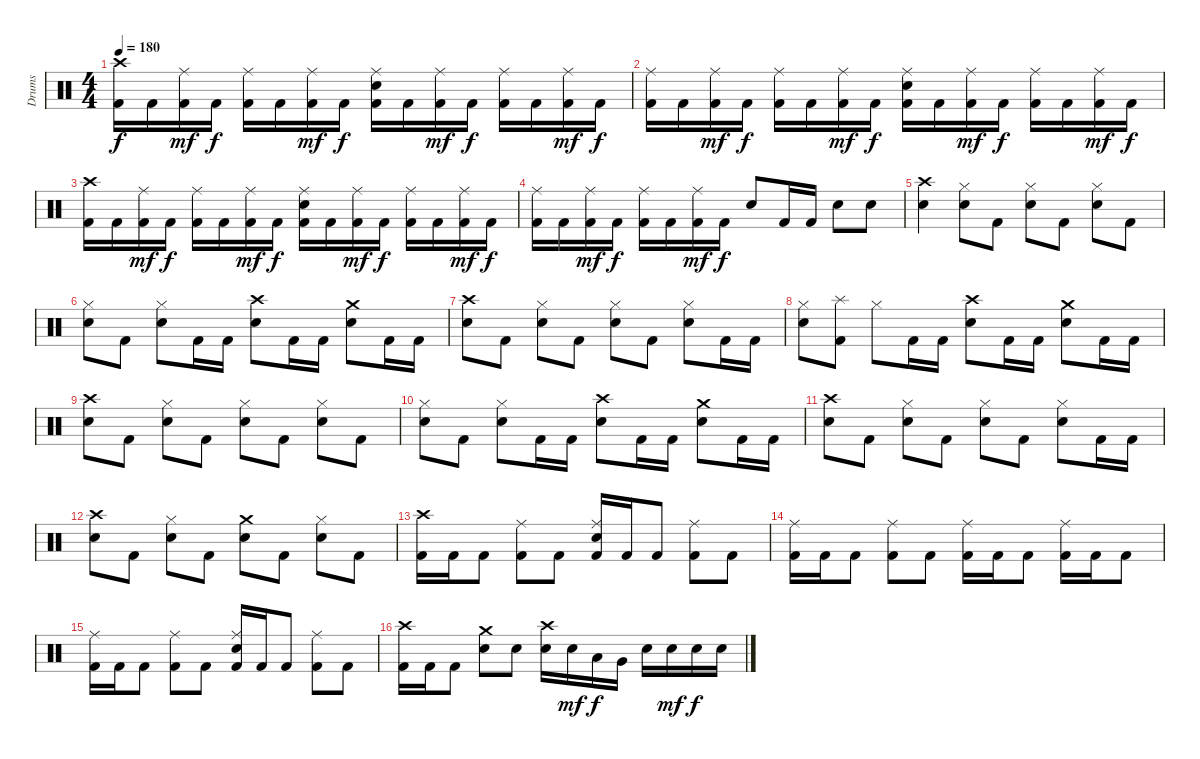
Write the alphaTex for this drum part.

\track ("Drums" "Drums") {instrument percussion}
\staff {score}
\articulation defaults
\ts (4 4)
\tempo 180
\clef neutral
\ks c
("Kick (hit) 2" "Crash high (hit)").16{dy f} "Kick (hit) 2".16 ("Kick (hit) 2" "Ride (middle)").16{dy mf} "Kick (hit) 2".16{dy f} ("Kick (hit) 2" "Ride (middle)").16 "Kick (hit) 2".16 ("Kick (hit) 2" "Ride (middle)").16{dy mf} "Kick (hit) 2".16{dy f} ("Kick (hit) 2" "Ride (middle)" "Electric Snare (hit)").16 "Kick (hit) 2".16 ("Kick (hit) 2" "Ride (middle)").16{dy mf} "Kick (hit) 2".16{dy f} ("Kick (hit) 2" "Ride (middle)").16 "Kick (hit) 2".16 ("Kick (hit) 2" "Ride (middle)").16{dy mf} "Kick (hit) 2".16{dy f} |
("Kick (hit) 2" "Ride (middle)").16 "Kick (hit) 2".16 ("Kick (hit) 2" "Ride (middle)").16{dy mf} "Kick (hit) 2".16{dy f} ("Kick (hit) 2" "Ride (middle)").16 "Kick (hit) 2".16 ("Kick (hit) 2" "Ride (middle)").16{dy mf} "Kick (hit) 2".16{dy f} ("Kick (hit) 2" "Ride (middle)" "Electric Snare (hit)").16 "Kick (hit) 2".16 ("Kick (hit) 2" "Ride (middle)").16{dy mf} "Kick (hit) 2".16{dy f} ("Kick (hit) 2" "Ride (middle)").16 "Kick (hit) 2".16 ("Kick (hit) 2" "Ride (middle)").16{dy mf} "Kick (hit) 2".16{dy f} |
("Kick (hit) 2" "Crash high (hit)").16 "Kick (hit) 2".16 ("Kick (hit) 2" "Ride (middle)").16{dy mf} "Kick (hit) 2".16{dy f} ("Kick (hit) 2" "Ride (middle)").16 "Kick (hit) 2".16 ("Kick (hit) 2" "Ride (middle)").16{dy mf} "Kick (hit) 2".16{dy f} ("Kick (hit) 2" "Ride (middle)" "Electric Snare (hit)").16 "Kick (hit) 2".16 ("Kick (hit) 2" "Ride (middle)").16{dy mf} "Kick (hit) 2".16{dy f} ("Kick (hit) 2" "Ride (middle)").16 "Kick (hit) 2".16 ("Kick (hit) 2" "Ride (middle)").16{dy mf} "Kick (hit) 2".16{dy f} |
("Kick (hit) 2" "Ride (middle)").16 "Kick (hit) 2".16 ("Kick (hit) 2" "Ride (middle)").16{dy mf} "Kick (hit) 2".16{dy f} ("Kick (hit) 2" "Ride (middle)").16 "Kick (hit) 2".16 ("Kick (hit) 2" "Ride (middle)").16{dy mf} "Kick (hit) 2".16{dy f} "Electric Snare (hit)".8 "Kick (hit) 2".16 "Kick (hit) 2".16 "Electric Snare (hit)".8 "Electric Snare (hit)".8 |
("Crash high (hit)" "Electric Snare (hit)").4 ("Hi-Hat (closed)" "Electric Snare (hit)").8 "Kick (hit) 2".8 ("Hi-Hat (closed)" "Electric Snare (hit)").8 "Kick (hit) 2".8 ("Hi-Hat (closed)" "Electric Snare (hit)").8 "Kick (hit) 2".8 |
("Hi-Hat (closed)" "Electric Snare (hit)").8 "Kick (hit) 2".8 ("Hi-Hat (closed)" "Electric Snare (hit)").8 "Kick (hit) 2".16 "Kick (hit) 2".16 ("Crash high (hit)" "Electric Snare (hit)").8 "Kick (hit) 2".16 "Kick (hit) 2".16 ("Crash medium (hit)" "Electric Snare (hit)").8 "Kick (hit) 2".16 "Kick (hit) 2".16 |
("Crash high (hit)" "Electric Snare (hit)").8 "Kick (hit) 2".8 ("Hi-Hat (closed)" "Electric Snare (hit)").8 "Kick (hit) 2".8 ("Hi-Hat (closed)" "Electric Snare (hit)").8 "Kick (hit) 2".8 ("Hi-Hat (closed)" "Electric Snare (hit)").8 "Kick (hit) 2".16 "Kick (hit) 2".16 |
("Hi-Hat (closed)" "Electric Snare (hit)").8 ("Kick (hit) 2" "Splash (hit)").8 "Hi-Hat (closed)".8 "Kick (hit) 2".16 "Kick (hit) 2".16 ("Crash high (hit)" "Electric Snare (hit)").8 "Kick (hit) 2".16 "Kick (hit) 2".16 ("Crash medium (hit)" "Electric Snare (hit)").8 "Kick (hit) 2".16 "Kick (hit) 2".16 |
("Crash high (hit)" "Electric Snare (hit)").8 "Kick (hit) 2".8 ("Hi-Hat (closed)" "Electric Snare (hit)").8 "Kick (hit) 2".8 ("Hi-Hat (closed)" "Electric Snare (hit)").8 "Kick (hit) 2".8 ("Hi-Hat (closed)" "Electric Snare (hit)").8 "Kick (hit) 2".8 |
("Hi-Hat (closed)" "Electric Snare (hit)").8 "Kick (hit) 2".8 ("Hi-Hat (closed)" "Electric Snare (hit)").8 "Kick (hit) 2".16 "Kick (hit) 2".16 ("Crash high (hit)" "Electric Snare (hit)").8 "Kick (hit) 2".16 "Kick (hit) 2".16 ("Crash medium (hit)" "Electric Snare (hit)").8 "Kick (hit) 2".16 "Kick (hit) 2".16 |
("Crash high (hit)" "Electric Snare (hit)").8 "Kick (hit) 2".8 ("Hi-Hat (closed)" "Electric Snare (hit)").8 "Kick (hit) 2".8 ("Hi-Hat (closed)" "Electric Snare (hit)").8 "Kick (hit) 2".8 ("Hi-Hat (closed)" "Electric Snare (hit)").8 "Kick (hit) 2".16 "Kick (hit) 2".16 |
("Crash high (hit)" "Electric Snare (hit)").8 "Kick (hit) 2".8 ("Hi-Hat (closed)" "Electric Snare (hit)").8 "Kick (hit) 2".8 ("Crash medium (hit)" "Electric Snare (hit)").8 "Kick (hit) 2".8 ("Hi-Hat (closed)" "Electric Snare (hit)").8 "Kick (hit) 2".8 |
("Kick (hit) 2" "Crash high (hit)").16 "Kick (hit) 2".16 "Kick (hit) 2".8 ("Kick (hit) 2" "Ride (middle)").8 "Kick (hit) 2".8 ("Kick (hit) 2" "Ride (middle)" "Electric Snare (hit)").16 "Kick (hit) 2".16 "Kick (hit) 2".8 ("Kick (hit) 2" "Ride (middle)").8 "Kick (hit) 2".8 |
("Kick (hit) 2" "Ride (middle)").16 "Kick (hit) 2".16 "Kick (hit) 2".8 ("Kick (hit) 2" "Ride (middle)").8 "Kick (hit) 2".8 ("Kick (hit) 2" "Ride (middle)").16 "Kick (hit) 2".16 "Kick (hit) 2".8 ("Kick (hit) 2" "Ride (middle)").16 "Kick (hit) 2".16 "Kick (hit) 2".8 |
("Kick (hit) 2" "Ride (middle)").16 "Kick (hit) 2".16 "Kick (hit) 2".8 ("Kick (hit) 2" "Ride (middle)").8 "Kick (hit) 2".8 ("Kick (hit) 2" "Ride (middle)" "Electric Snare (hit)").16 "Kick (hit) 2".16 "Kick (hit) 2".8 ("Kick (hit) 2" "Ride (middle)").8 "Kick (hit) 2".8 |
("Kick (hit) 2" "Crash high (hit)").16 "Kick (hit) 2".16 "Kick (hit) 2".8 ("Crash medium (hit)" "Electric Snare (hit)").8 "Electric Snare (hit)".8 ("Crash high (hit)" "Electric Snare (hit)").16 "Electric Snare (hit)".16{dy mf} "Low Tom (hit)".16{dy f} "Very Low Tom (hit)".16 "Electric Snare (hit)".16 "Electric Snare (hit)".16{dy mf} "Electric Snare (hit)".16{dy f} "Electric Snare (hit)".16
